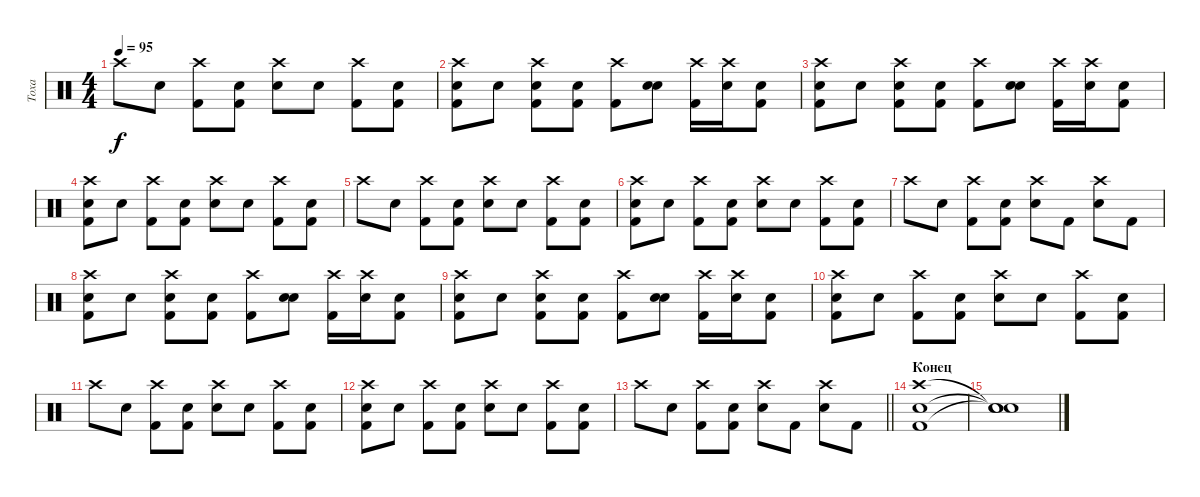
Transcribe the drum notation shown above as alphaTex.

\track ("Toxa" "Toxa") {instrument percussion}
\staff {score}
\articulation defaults
\ts (4 4)
\tempo 95
\clef neutral
\ks c "Crash high (hit)".8{dy f} "Snare (hit)".8
("Crash high (hit)" "Kick (hit) 2").8 ("Snare (hit)" "Kick (hit) 2").8 ("Crash high (hit)" "Electric Snare (hit)").8 "Snare (hit)".8 ("Crash high (hit)" "Kick (hit) 2").8 ("Snare (hit)" "Kick (hit) 2").8 |
("Crash high (hit)" "Kick (hit) 2" "Snare (hit) 2").8 "Snare (hit)".8 ("Crash high (hit)" "Kick (hit) 2" "Snare (hit) 2").8 ("Snare (hit)" "Kick (hit) 2").8 ("Crash high (hit)" "Kick (hit) 2").8 ("Snare (hit)" "Electric Snare (hit)").8 ("Crash high (hit)" "Kick (hit) 2").16 ("Crash high (hit)" "Electric Snare (hit)").16 ("Snare (hit)" "Kick (hit) 2").8 |
("Crash high (hit)" "Kick (hit) 2" "Snare (hit) 2").8 "Snare (hit)".8 ("Crash high (hit)" "Kick (hit) 2" "Snare (hit) 2").8 ("Snare (hit)" "Kick (hit) 2").8 ("Crash high (hit)" "Kick (hit) 2").8 ("Snare (hit)" "Electric Snare (hit)").8 ("Crash high (hit)" "Kick (hit) 2").16 ("Crash high (hit)" "Electric Snare (hit)").16 ("Snare (hit)" "Kick (hit) 2").8 |
("Crash high (hit)" "Kick (hit) 2" "Snare (hit) 2").8 "Snare (hit)".8 ("Crash high (hit)" "Kick (hit) 2").8 ("Snare (hit)" "Kick (hit) 2").8 ("Crash high (hit)" "Electric Snare (hit)").8 "Snare (hit)".8 ("Crash high (hit)" "Kick (hit) 2").8 ("Snare (hit)" "Kick (hit) 2").8 |
"Crash high (hit)".8 "Snare (hit)".8 ("Crash high (hit)" "Kick (hit) 2").8 ("Snare (hit)" "Kick (hit) 2").8 ("Crash high (hit)" "Electric Snare (hit)").8 "Snare (hit)".8 ("Crash high (hit)" "Kick (hit) 2").8 ("Snare (hit)" "Kick (hit) 2").8 |
("Crash high (hit)" "Kick (hit) 2" "Snare (hit) 2").8 "Snare (hit)".8 ("Crash high (hit)" "Kick (hit) 2").8 ("Snare (hit)" "Kick (hit) 2").8 ("Crash high (hit)" "Electric Snare (hit)").8 "Snare (hit)".8 ("Crash high (hit)" "Kick (hit) 2").8 ("Snare (hit)" "Kick (hit) 2").8 |
"Crash high (hit)".8 "Snare (hit)".8 ("Crash high (hit)" "Kick (hit) 2").8 ("Snare (hit)" "Kick (hit) 2").8 ("Crash high (hit)" "Electric Snare (hit)").8 "Kick (hit) 2".8 ("Crash high (hit)" "Electric Snare (hit)").8 "Kick (hit) 2".8 |
("Crash high (hit)" "Kick (hit) 2" "Snare (hit) 2").8 "Snare (hit)".8 ("Crash high (hit)" "Kick (hit) 2" "Snare (hit) 2").8 ("Snare (hit)" "Kick (hit) 2").8 ("Crash high (hit)" "Kick (hit) 2").8 ("Snare (hit)" "Electric Snare (hit)").8 ("Crash high (hit)" "Kick (hit) 2").16 ("Crash high (hit)" "Electric Snare (hit)").16 ("Snare (hit)" "Kick (hit) 2").8 |
("Crash high (hit)" "Kick (hit) 2" "Snare (hit) 2").8 "Snare (hit)".8 ("Crash high (hit)" "Kick (hit) 2" "Snare (hit) 2").8 ("Snare (hit)" "Kick (hit) 2").8 ("Crash high (hit)" "Kick (hit) 2").8 ("Snare (hit)" "Electric Snare (hit)").8 ("Crash high (hit)" "Kick (hit) 2").16 ("Crash high (hit)" "Electric Snare (hit)").16 ("Snare (hit)" "Kick (hit) 2").8 |
("Crash high (hit)" "Kick (hit) 2" "Snare (hit) 2").8 "Snare (hit)".8 ("Crash high (hit)" "Kick (hit) 2").8 ("Snare (hit)" "Kick (hit) 2").8 ("Crash high (hit)" "Electric Snare (hit)").8 "Snare (hit)".8 ("Crash high (hit)" "Kick (hit) 2").8 ("Snare (hit)" "Kick (hit) 2").8 |
"Crash high (hit)".8 "Snare (hit)".8 ("Crash high (hit)" "Kick (hit) 2").8 ("Snare (hit)" "Kick (hit) 2").8 ("Crash high (hit)" "Electric Snare (hit)").8 "Snare (hit)".8 ("Crash high (hit)" "Kick (hit) 2").8 ("Snare (hit)" "Kick (hit) 2").8 |
("Crash high (hit)" "Kick (hit) 2" "Snare (hit) 2").8 "Snare (hit)".8 ("Crash high (hit)" "Kick (hit) 2").8 ("Snare (hit)" "Kick (hit) 2").8 ("Crash high (hit)" "Electric Snare (hit)").8 "Snare (hit)".8 ("Crash high (hit)" "Kick (hit) 2").8 ("Snare (hit)" "Kick (hit) 2").8 |
\barLineRight lightlight "Crash high (hit)".8 "Snare (hit)".8
("Crash high (hit)" "Kick (hit) 2").8 ("Snare (hit)" "Kick (hit) 2").8 ("Crash high (hit)" "Electric Snare (hit)").8 "Kick (hit) 2".8 ("Crash high (hit)" "Electric Snare (hit)").8 "Kick (hit) 2".8 |
\section ("" "Конец")
("Snare (hit) 2" "Kick (hit) 2" "Crash high (hit)").1 |
("Snare (hit)"{t} "Snare (hit)"{t} "Snare (hit)"{t}).1
